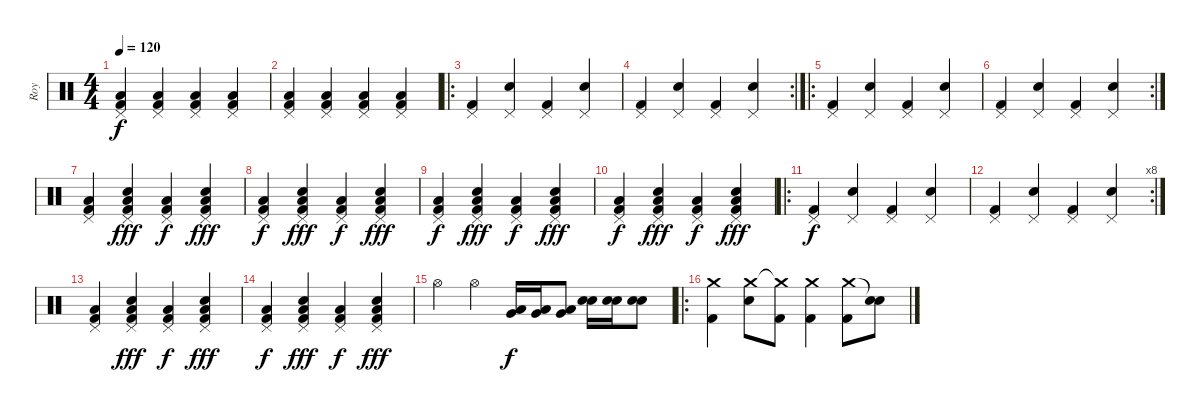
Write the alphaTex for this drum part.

\track ("Roy" "Roy") {instrument percussion}
\staff {score}
\articulation defaults
\ts (4 4)
\tempo 120
\clef neutral
\ks c
("Pedal Hi-Hat (hit)" "Low Floor Tom (hit)" "Kick (hit) 2").4{dy f} ("Pedal Hi-Hat (hit)" "Low Floor Tom (hit)" "Kick (hit) 2").4 ("Pedal Hi-Hat (hit)" "Low Floor Tom (hit)" "Kick (hit) 2").4 ("Pedal Hi-Hat (hit)" "Low Floor Tom (hit)" "Kick (hit) 2").4 |
("Pedal Hi-Hat (hit)" "Low Floor Tom (hit)" "Kick (hit) 2").4 ("Pedal Hi-Hat (hit)" "Low Floor Tom (hit)" "Kick (hit) 2").4 ("Pedal Hi-Hat (hit)" "Low Floor Tom (hit)" "Kick (hit) 2").4 ("Pedal Hi-Hat (hit)" "Low Floor Tom (hit)" "Kick (hit) 2").4 |
\ro
("Pedal Hi-Hat (hit)" "Kick (hit) 2").4 ("Pedal Hi-Hat (hit)" "Snare (hit) 2").4 ("Pedal Hi-Hat (hit)" "Kick (hit) 2").4 ("Pedal Hi-Hat (hit)" "Snare (hit) 2").4 |
\rc 2
("Pedal Hi-Hat (hit)" "Kick (hit) 2").4 ("Pedal Hi-Hat (hit)" "Snare (hit) 2").4 ("Pedal Hi-Hat (hit)" "Kick (hit) 2").4 ("Pedal Hi-Hat (hit)" "Snare (hit) 2").4 |
\ro
("Pedal Hi-Hat (hit)" "Kick (hit) 2").4 ("Pedal Hi-Hat (hit)" "Snare (hit) 2").4 ("Pedal Hi-Hat (hit)" "Kick (hit) 2").4 ("Pedal Hi-Hat (hit)" "Snare (hit) 2").4 |
\rc 2
("Pedal Hi-Hat (hit)" "Kick (hit) 2").4 ("Pedal Hi-Hat (hit)" "Snare (hit) 2").4 ("Pedal Hi-Hat (hit)" "Kick (hit) 2").4 ("Pedal Hi-Hat (hit)" "Snare (hit) 2").4 |
("Pedal Hi-Hat (hit)" "Low Floor Tom (hit)" "Kick (hit) 2").4 ("Snare (hit) 2" "Pedal Hi-Hat (hit)" "Low Floor Tom (hit)" "Kick (hit) 2").4{dy fff} ("Pedal Hi-Hat (hit)" "Low Floor Tom (hit)" "Kick (hit) 2").4{dy f} ("Snare (hit) 2" "Pedal Hi-Hat (hit)" "Low Floor Tom (hit)" "Kick (hit) 2").4{dy fff} |
("Pedal Hi-Hat (hit)" "Low Floor Tom (hit)" "Kick (hit) 2").4{dy f} ("Snare (hit) 2" "Pedal Hi-Hat (hit)" "Low Floor Tom (hit)" "Kick (hit) 2").4{dy fff} ("Pedal Hi-Hat (hit)" "Low Floor Tom (hit)" "Kick (hit) 2").4{dy f} ("Snare (hit) 2" "Pedal Hi-Hat (hit)" "Low Floor Tom (hit)" "Kick (hit) 2").4{dy fff} |
("Pedal Hi-Hat (hit)" "Low Floor Tom (hit)" "Kick (hit) 2").4{dy f} ("Snare (hit) 2" "Pedal Hi-Hat (hit)" "Low Floor Tom (hit)" "Kick (hit) 2").4{dy fff} ("Pedal Hi-Hat (hit)" "Low Floor Tom (hit)" "Kick (hit) 2").4{dy f} ("Snare (hit) 2" "Pedal Hi-Hat (hit)" "Low Floor Tom (hit)" "Kick (hit) 2").4{dy fff} |
("Pedal Hi-Hat (hit)" "Low Floor Tom (hit)" "Kick (hit) 2").4{dy f} ("Snare (hit) 2" "Pedal Hi-Hat (hit)" "Low Floor Tom (hit)" "Kick (hit) 2").4{dy fff} ("Pedal Hi-Hat (hit)" "Low Floor Tom (hit)" "Kick (hit) 2").4{dy f} ("Snare (hit) 2" "Pedal Hi-Hat (hit)" "Low Floor Tom (hit)" "Kick (hit) 2").4{dy fff} |
\ro
("Pedal Hi-Hat (hit)" "Kick (hit) 2").4{dy f} ("Pedal Hi-Hat (hit)" "Snare (hit) 2").4 ("Pedal Hi-Hat (hit)" "Kick (hit) 2").4 ("Pedal Hi-Hat (hit)" "Snare (hit) 2").4 |
\rc 8
("Pedal Hi-Hat (hit)" "Kick (hit) 2").4 ("Pedal Hi-Hat (hit)" "Snare (hit) 2").4 ("Pedal Hi-Hat (hit)" "Kick (hit) 2").4 ("Pedal Hi-Hat (hit)" "Snare (hit) 2").4 |
("Pedal Hi-Hat (hit)" "Low Floor Tom (hit)" "Kick (hit) 2").4 ("Snare (hit) 2" "Pedal Hi-Hat (hit)" "Low Floor Tom (hit)" "Kick (hit) 2").4{dy fff} ("Pedal Hi-Hat (hit)" "Low Floor Tom (hit)" "Kick (hit) 2").4{dy f} ("Snare (hit) 2" "Pedal Hi-Hat (hit)" "Low Floor Tom (hit)" "Kick (hit) 2").4{dy fff} |
("Pedal Hi-Hat (hit)" "Low Floor Tom (hit)" "Kick (hit) 2").4{dy f} ("Snare (hit) 2" "Pedal Hi-Hat (hit)" "Low Floor Tom (hit)" "Kick (hit) 2").4{dy fff} ("Pedal Hi-Hat (hit)" "Low Floor Tom (hit)" "Kick (hit) 2").4{dy f} ("Snare (hit) 2" "Pedal Hi-Hat (hit)" "Low Floor Tom (hit)" "Kick (hit) 2").4{dy fff} |
"Hi-Hat (open)".4 "Hi-Hat (open)".4 ("Low Tom (hit)" "Very Low Tom (hit)").16{dy f} ("Very Low Tom (hit)" "Low Tom (hit)").16 ("Very Low Tom (hit)" "Low Tom (hit)").8 ("Electric Snare (hit)" "Snare (hit) 2").16 ("Electric Snare (hit)" "Snare (hit) 2").16 ("Electric Snare (hit)" "Snare (hit) 2").8 |
\ro
("Crash medium (hit)" "Kick (hit) 2").4 ("Crash medium (hit)" "Snare (hit) 2").8 ("Crash medium (hit)"{t} "Kick (hit) 2").8 ("Crash medium (hit)" "Kick (hit) 2").4 ("Crash medium (hit)" "Kick (hit) 2").8 ("Snare (hit)"{t} "Snare (hit) 2").8
